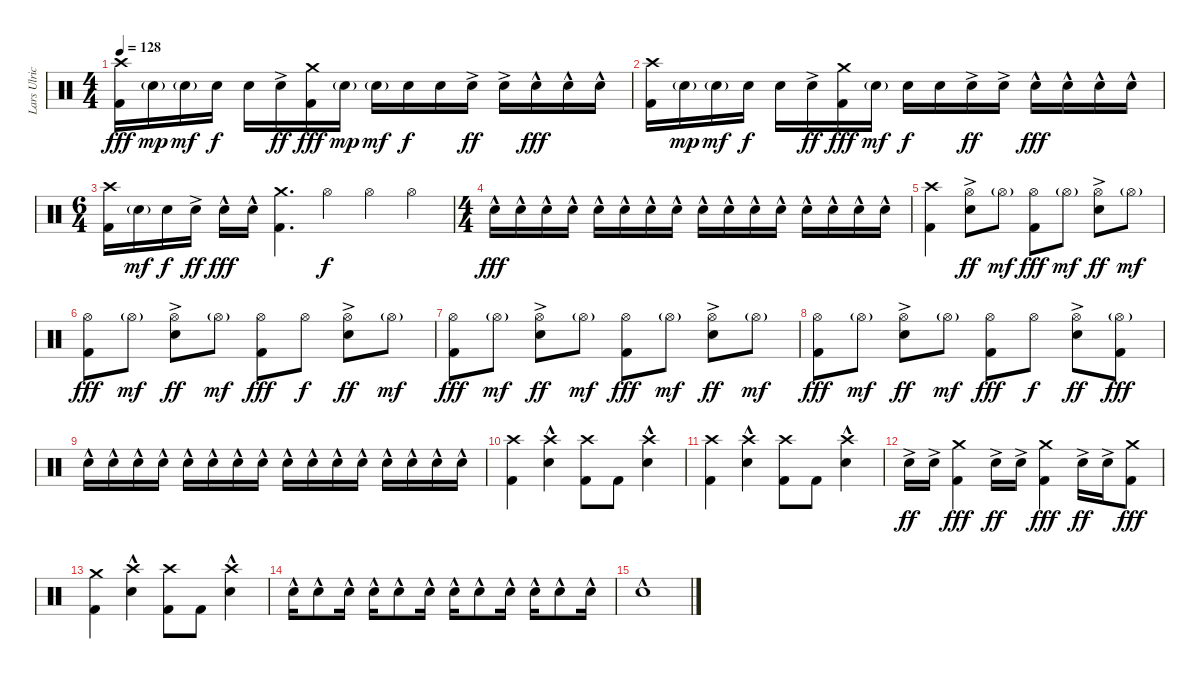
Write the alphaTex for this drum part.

\track ("Lars Ulrich (Drums)" "Lars Ulric") {instrument percussion}
\staff {score}
\articulation defaults
\ts (4 4)
\tempo 128
\clef neutral
\ks c
("Crash high (hit)" "Kick (hit) 2").16{dy fff} "Electric Snare (hit)"{g}.16{dy mp} "Electric Snare (hit)"{g}.16{dy mf} "Electric Snare (hit)".16{dy f} "Electric Snare (hit)".16 "Electric Snare (hit)"{ac}.16{dy ff} ("Crash medium (hit)" "Kick (hit) 2").16{dy fff} "Electric Snare (hit)"{g}.16{dy mp} "Electric Snare (hit)"{g}.16{dy mf} "Electric Snare (hit)".16{dy f} "Electric Snare (hit)".16 "Electric Snare (hit)"{ac}.16{dy ff} "Electric Snare (hit)"{ac}.16 "Electric Snare (hit)"{hac}.16{dy fff} "Electric Snare (hit)"{hac}.16 "Electric Snare (hit)"{hac}.16 |
("Crash high (hit)" "Kick (hit) 2").16 "Electric Snare (hit)"{g}.16{dy mp} "Electric Snare (hit)"{g}.16{dy mf} "Electric Snare (hit)".16{dy f} "Electric Snare (hit)".16 "Electric Snare (hit)"{ac}.16{dy ff} ("Crash medium (hit)" "Kick (hit) 2").16{dy fff} "Electric Snare (hit)"{g}.16{dy mf} "Electric Snare (hit)".16{dy f} "Electric Snare (hit)".16 "Electric Snare (hit)"{ac}.16{dy ff} "Electric Snare (hit)"{ac}.16 "Electric Snare (hit)"{hac}.16{dy fff} "Electric Snare (hit)"{hac}.16 "Electric Snare (hit)"{hac}.16 "Electric Snare (hit)"{hac}.16 |
\ts (6 4)
("Crash high (hit)" "Kick (hit) 2").16 "Electric Snare (hit)"{g}.16{dy mf} "Electric Snare (hit)".16{dy f} "Electric Snare (hit)"{ac}.16{dy ff} "Electric Snare (hit)"{hac}.16{dy fff} "Electric Snare (hit)"{hac}.16 ("Crash medium (hit)" "Kick (hit) 2").4{d} "Hi-Hat (open)".4{dy f} "Hi-Hat (open)".4 "Hi-Hat (open)".4 |
\ts (4 4)
"Electric Snare (hit)"{hac}.16{dy fff} "Electric Snare (hit)"{hac}.16 "Electric Snare (hit)"{hac}.16 "Electric Snare (hit)"{hac}.16 "Electric Snare (hit)"{hac}.16 "Electric Snare (hit)"{hac}.16 "Electric Snare (hit)"{hac}.16 "Electric Snare (hit)"{hac}.16 "Electric Snare (hit)"{hac}.16 "Electric Snare (hit)"{hac}.16 "Electric Snare (hit)"{hac}.16 "Electric Snare (hit)"{hac}.16 "Electric Snare (hit)"{hac}.16 "Electric Snare (hit)"{hac}.16 "Electric Snare (hit)"{hac}.16 "Electric Snare (hit)"{hac}.16 |
("Crash high (hit)" "Kick (hit) 2").4 ("Hi-Hat (open)"{ac} "Electric Snare (hit)"{ac}).8{dy ff} "Hi-Hat (open)"{g}.8{dy mf} ("Hi-Hat (open)" "Kick (hit) 2").8{dy fff} "Hi-Hat (open)"{g}.8{dy mf} ("Hi-Hat (open)"{ac} "Electric Snare (hit)"{ac}).8{dy ff} "Hi-Hat (open)"{g}.8{dy mf} |
("Hi-Hat (open)" "Kick (hit) 2").8{dy fff} "Hi-Hat (open)"{g}.8{dy mf} ("Hi-Hat (open)"{ac} "Electric Snare (hit)"{ac}).8{dy ff} "Hi-Hat (open)"{g}.8{dy mf} ("Hi-Hat (open)" "Kick (hit) 2").8{dy fff} "Hi-Hat (open)".8{dy f} ("Hi-Hat (open)"{ac} "Electric Snare (hit)"{ac}).8{dy ff} "Hi-Hat (open)"{g}.8{dy mf} |
("Hi-Hat (open)" "Kick (hit) 2").8{dy fff} "Hi-Hat (open)"{g}.8{dy mf} ("Hi-Hat (open)"{ac} "Electric Snare (hit)"{ac}).8{dy ff} "Hi-Hat (open)"{g}.8{dy mf} ("Hi-Hat (open)" "Kick (hit) 2").8{dy fff} "Hi-Hat (open)"{g}.8{dy mf} ("Hi-Hat (open)"{ac} "Electric Snare (hit)"{ac}).8{dy ff} "Hi-Hat (open)"{g}.8{dy mf} |
("Hi-Hat (open)" "Kick (hit) 2").8{dy fff} "Hi-Hat (open)"{g}.8{dy mf} ("Hi-Hat (open)"{ac} "Electric Snare (hit)"{ac}).8{dy ff} "Hi-Hat (open)"{g}.8{dy mf} ("Hi-Hat (open)" "Kick (hit) 2").8{dy fff} "Hi-Hat (open)".8{dy f} ("Hi-Hat (open)"{ac} "Electric Snare (hit)"{ac}).8{dy ff} ("Hi-Hat (open)"{g} "Kick (hit) 2").8{dy fff} |
"Electric Snare (hit)"{hac}.16 "Electric Snare (hit)"{hac}.16 "Electric Snare (hit)"{hac}.16 "Electric Snare (hit)"{hac}.16 "Electric Snare (hit)"{hac}.16 "Electric Snare (hit)"{hac}.16 "Electric Snare (hit)"{hac}.16 "Electric Snare (hit)"{hac}.16 "Electric Snare (hit)"{hac}.16 "Electric Snare (hit)"{hac}.16 "Electric Snare (hit)"{hac}.16 "Electric Snare (hit)"{hac}.16 "Electric Snare (hit)"{hac}.16 "Electric Snare (hit)"{hac}.16 "Electric Snare (hit)"{hac}.16 "Electric Snare (hit)"{hac}.16 |
("Crash high (hit)" "Kick (hit) 2").4 ("Crash high (hit)" "Electric Snare (hit)"{hac}).4 ("Crash high (hit)" "Kick (hit) 2").8 "Kick (hit) 2".8 ("Crash high (hit)" "Electric Snare (hit)"{hac}).4 |
("Crash high (hit)" "Kick (hit) 2").4 ("Crash high (hit)" "Electric Snare (hit)"{hac}).4 ("Crash high (hit)" "Kick (hit) 2").8 "Kick (hit) 2".8 ("Crash high (hit)" "Electric Snare (hit)"{hac}).4 |
"Electric Snare (hit)"{ac}.16{dy ff} "Electric Snare (hit)"{ac}.16 ("Crash medium (hit)" "Kick (hit) 2").4{dy fff} "Electric Snare (hit)"{ac}.16{dy ff} "Electric Snare (hit)"{ac}.16 ("Crash medium (hit)" "Kick (hit) 2").4{dy fff} "Electric Snare (hit)"{ac}.16{dy ff} "Electric Snare (hit)"{ac}.16 ("Crash medium (hit)" "Kick (hit) 2").8{dy fff} |
("Crash medium (hit)" "Kick (hit) 2").4 ("Crash high (hit)" "Electric Snare (hit)"{hac}).4 ("Crash high (hit)" "Kick (hit) 2").8 "Kick (hit) 2".8 ("Crash high (hit)" "Electric Snare (hit)"{hac}).4 |
"Electric Snare (hit)"{hac}.16{volume 14} "Electric Snare (hit)"{hac}.8 "Electric Snare (hit)"{hac}.16 "Electric Snare (hit)"{hac}.16 "Electric Snare (hit)"{hac}.8 "Electric Snare (hit)"{hac}.16 "Electric Snare (hit)"{hac}.16 "Electric Snare (hit)"{hac}.8 "Electric Snare (hit)"{hac}.16 "Electric Snare (hit)"{hac}.16 "Electric Snare (hit)"{hac}.8 "Electric Snare (hit)"{hac}.16 |
"Electric Snare (hit)"{hac}.1
